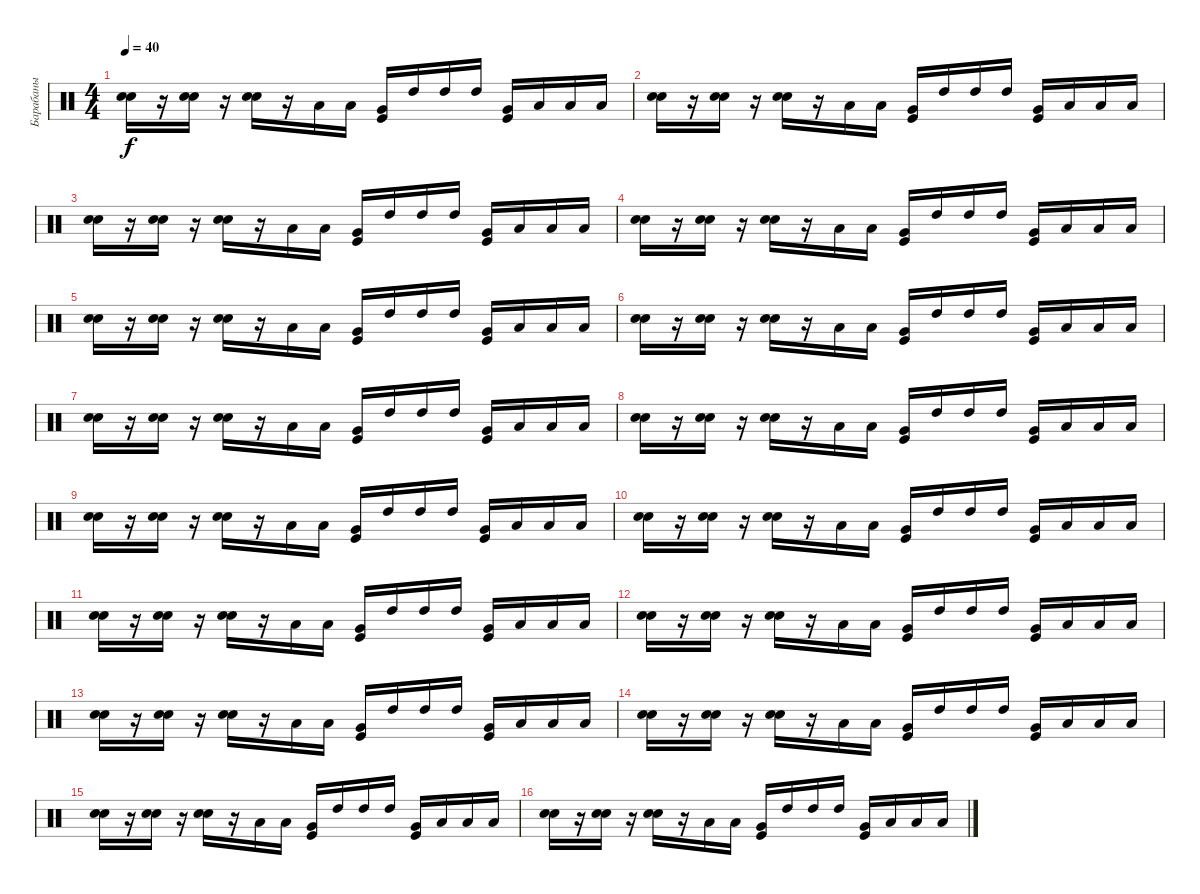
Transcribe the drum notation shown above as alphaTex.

\track ("Барабаны" "Барабаны") {instrument percussion}
\staff {score}
\articulation defaults
\ts (4 4)
\tempo 40
\clef neutral
\ks c
("Snare (hit) 2" "Hand Clap (hit)").16{dy f} r.16 ("Snare (hit) 2" "Hand Clap (hit)").16 r.16 ("Snare (hit) 2" "Hand Clap (hit)").16 r.16 "Low Floor Tom (hit)".16 "Low Floor Tom (hit)".16 ("Kick (hit)" "Very Low Tom (hit)").16 "High Tom (hit)".16 "High Tom (hit)".16 "High Tom (hit)".16 ("Kick (hit)" "Very Low Tom (hit)").16 "Low Floor Tom (hit)".16 "Low Floor Tom (hit)".16 "Low Floor Tom (hit)".16 |
("Snare (hit) 2" "Hand Clap (hit)").16 r.16 ("Snare (hit) 2" "Hand Clap (hit)").16 r.16 ("Snare (hit) 2" "Hand Clap (hit)").16 r.16 "Low Floor Tom (hit)".16 "Low Floor Tom (hit)".16 ("Kick (hit)" "Very Low Tom (hit)").16 "High Tom (hit)".16 "High Tom (hit)".16 "High Tom (hit)".16 ("Kick (hit)" "Very Low Tom (hit)").16 "Low Floor Tom (hit)".16 "Low Floor Tom (hit)".16 "Low Floor Tom (hit)".16 |
("Snare (hit) 2" "Hand Clap (hit)").16 r.16 ("Snare (hit) 2" "Hand Clap (hit)").16 r.16 ("Snare (hit) 2" "Hand Clap (hit)").16 r.16 "Low Floor Tom (hit)".16 "Low Floor Tom (hit)".16 ("Kick (hit)" "Very Low Tom (hit)").16 "High Tom (hit)".16 "High Tom (hit)".16 "High Tom (hit)".16 ("Kick (hit)" "Very Low Tom (hit)").16 "Low Floor Tom (hit)".16 "Low Floor Tom (hit)".16 "Low Floor Tom (hit)".16 |
("Snare (hit) 2" "Hand Clap (hit)").16 r.16 ("Snare (hit) 2" "Hand Clap (hit)").16 r.16 ("Snare (hit) 2" "Hand Clap (hit)").16 r.16 "Low Floor Tom (hit)".16 "Low Floor Tom (hit)".16 ("Kick (hit)" "Very Low Tom (hit)").16 "High Tom (hit)".16 "High Tom (hit)".16 "High Tom (hit)".16 ("Kick (hit)" "Very Low Tom (hit)").16 "Low Floor Tom (hit)".16 "Low Floor Tom (hit)".16 "Low Floor Tom (hit)".16 |
("Snare (hit) 2" "Hand Clap (hit)").16 r.16 ("Snare (hit) 2" "Hand Clap (hit)").16 r.16 ("Snare (hit) 2" "Hand Clap (hit)").16 r.16 "Low Floor Tom (hit)".16 "Low Floor Tom (hit)".16 ("Kick (hit)" "Very Low Tom (hit)").16 "High Tom (hit)".16 "High Tom (hit)".16 "High Tom (hit)".16 ("Kick (hit)" "Very Low Tom (hit)").16 "Low Floor Tom (hit)".16 "Low Floor Tom (hit)".16 "Low Floor Tom (hit)".16 |
("Snare (hit) 2" "Hand Clap (hit)").16 r.16 ("Snare (hit) 2" "Hand Clap (hit)").16 r.16 ("Snare (hit) 2" "Hand Clap (hit)").16 r.16 "Low Floor Tom (hit)".16 "Low Floor Tom (hit)".16 ("Kick (hit)" "Very Low Tom (hit)").16 "High Tom (hit)".16 "High Tom (hit)".16 "High Tom (hit)".16 ("Kick (hit)" "Very Low Tom (hit)").16 "Low Floor Tom (hit)".16 "Low Floor Tom (hit)".16 "Low Floor Tom (hit)".16 |
("Snare (hit) 2" "Hand Clap (hit)").16 r.16 ("Snare (hit) 2" "Hand Clap (hit)").16 r.16 ("Snare (hit) 2" "Hand Clap (hit)").16 r.16 "Low Floor Tom (hit)".16 "Low Floor Tom (hit)".16 ("Kick (hit)" "Very Low Tom (hit)").16 "High Tom (hit)".16 "High Tom (hit)".16 "High Tom (hit)".16 ("Kick (hit)" "Very Low Tom (hit)").16 "Low Floor Tom (hit)".16 "Low Floor Tom (hit)".16 "Low Floor Tom (hit)".16 |
("Snare (hit) 2" "Hand Clap (hit)").16 r.16 ("Snare (hit) 2" "Hand Clap (hit)").16 r.16 ("Snare (hit) 2" "Hand Clap (hit)").16 r.16 "Low Floor Tom (hit)".16 "Low Floor Tom (hit)".16 ("Kick (hit)" "Very Low Tom (hit)").16 "High Tom (hit)".16 "High Tom (hit)".16 "High Tom (hit)".16 ("Kick (hit)" "Very Low Tom (hit)").16 "Low Floor Tom (hit)".16 "Low Floor Tom (hit)".16 "Low Floor Tom (hit)".16 |
("Snare (hit) 2" "Hand Clap (hit)").16 r.16 ("Snare (hit) 2" "Hand Clap (hit)").16 r.16 ("Snare (hit) 2" "Hand Clap (hit)").16 r.16 "Low Floor Tom (hit)".16 "Low Floor Tom (hit)".16 ("Kick (hit)" "Very Low Tom (hit)").16 "High Tom (hit)".16 "High Tom (hit)".16 "High Tom (hit)".16 ("Kick (hit)" "Very Low Tom (hit)").16 "Low Floor Tom (hit)".16 "Low Floor Tom (hit)".16 "Low Floor Tom (hit)".16 |
("Snare (hit) 2" "Hand Clap (hit)").16 r.16 ("Snare (hit) 2" "Hand Clap (hit)").16 r.16 ("Snare (hit) 2" "Hand Clap (hit)").16 r.16 "Low Floor Tom (hit)".16 "Low Floor Tom (hit)".16 ("Kick (hit)" "Very Low Tom (hit)").16 "High Tom (hit)".16 "High Tom (hit)".16 "High Tom (hit)".16 ("Kick (hit)" "Very Low Tom (hit)").16 "Low Floor Tom (hit)".16 "Low Floor Tom (hit)".16 "Low Floor Tom (hit)".16 |
("Snare (hit) 2" "Hand Clap (hit)").16 r.16 ("Snare (hit) 2" "Hand Clap (hit)").16 r.16 ("Snare (hit) 2" "Hand Clap (hit)").16 r.16 "Low Floor Tom (hit)".16 "Low Floor Tom (hit)".16 ("Kick (hit)" "Very Low Tom (hit)").16 "High Tom (hit)".16 "High Tom (hit)".16 "High Tom (hit)".16 ("Kick (hit)" "Very Low Tom (hit)").16 "Low Floor Tom (hit)".16 "Low Floor Tom (hit)".16 "Low Floor Tom (hit)".16 |
("Snare (hit) 2" "Hand Clap (hit)").16 r.16 ("Snare (hit) 2" "Hand Clap (hit)").16 r.16 ("Snare (hit) 2" "Hand Clap (hit)").16 r.16 "Low Floor Tom (hit)".16 "Low Floor Tom (hit)".16 ("Kick (hit)" "Very Low Tom (hit)").16 "High Tom (hit)".16 "High Tom (hit)".16 "High Tom (hit)".16 ("Kick (hit)" "Very Low Tom (hit)").16 "Low Floor Tom (hit)".16 "Low Floor Tom (hit)".16 "Low Floor Tom (hit)".16 |
("Snare (hit) 2" "Hand Clap (hit)").16 r.16 ("Snare (hit) 2" "Hand Clap (hit)").16 r.16 ("Snare (hit) 2" "Hand Clap (hit)").16 r.16 "Low Floor Tom (hit)".16 "Low Floor Tom (hit)".16 ("Kick (hit)" "Very Low Tom (hit)").16 "High Tom (hit)".16 "High Tom (hit)".16 "High Tom (hit)".16 ("Kick (hit)" "Very Low Tom (hit)").16 "Low Floor Tom (hit)".16 "Low Floor Tom (hit)".16 "Low Floor Tom (hit)".16 |
("Snare (hit) 2" "Hand Clap (hit)").16 r.16 ("Snare (hit) 2" "Hand Clap (hit)").16 r.16 ("Snare (hit) 2" "Hand Clap (hit)").16 r.16 "Low Floor Tom (hit)".16 "Low Floor Tom (hit)".16 ("Kick (hit)" "Very Low Tom (hit)").16 "High Tom (hit)".16 "High Tom (hit)".16 "High Tom (hit)".16 ("Kick (hit)" "Very Low Tom (hit)").16 "Low Floor Tom (hit)".16 "Low Floor Tom (hit)".16 "Low Floor Tom (hit)".16 |
("Snare (hit) 2" "Hand Clap (hit)").16 r.16 ("Snare (hit) 2" "Hand Clap (hit)").16 r.16 ("Snare (hit) 2" "Hand Clap (hit)").16 r.16 "Low Floor Tom (hit)".16 "Low Floor Tom (hit)".16 ("Kick (hit)" "Very Low Tom (hit)").16 "High Tom (hit)".16 "High Tom (hit)".16 "High Tom (hit)".16 ("Kick (hit)" "Very Low Tom (hit)").16 "Low Floor Tom (hit)".16 "Low Floor Tom (hit)".16 "Low Floor Tom (hit)".16 |
("Snare (hit) 2" "Hand Clap (hit)").16 r.16 ("Snare (hit) 2" "Hand Clap (hit)").16 r.16 ("Snare (hit) 2" "Hand Clap (hit)").16 r.16 "Low Floor Tom (hit)".16 "Low Floor Tom (hit)".16 ("Kick (hit)" "Very Low Tom (hit)").16 "High Tom (hit)".16 "High Tom (hit)".16 "High Tom (hit)".16 ("Kick (hit)" "Very Low Tom (hit)").16 "Low Floor Tom (hit)".16 "Low Floor Tom (hit)".16 "Low Floor Tom (hit)".16
